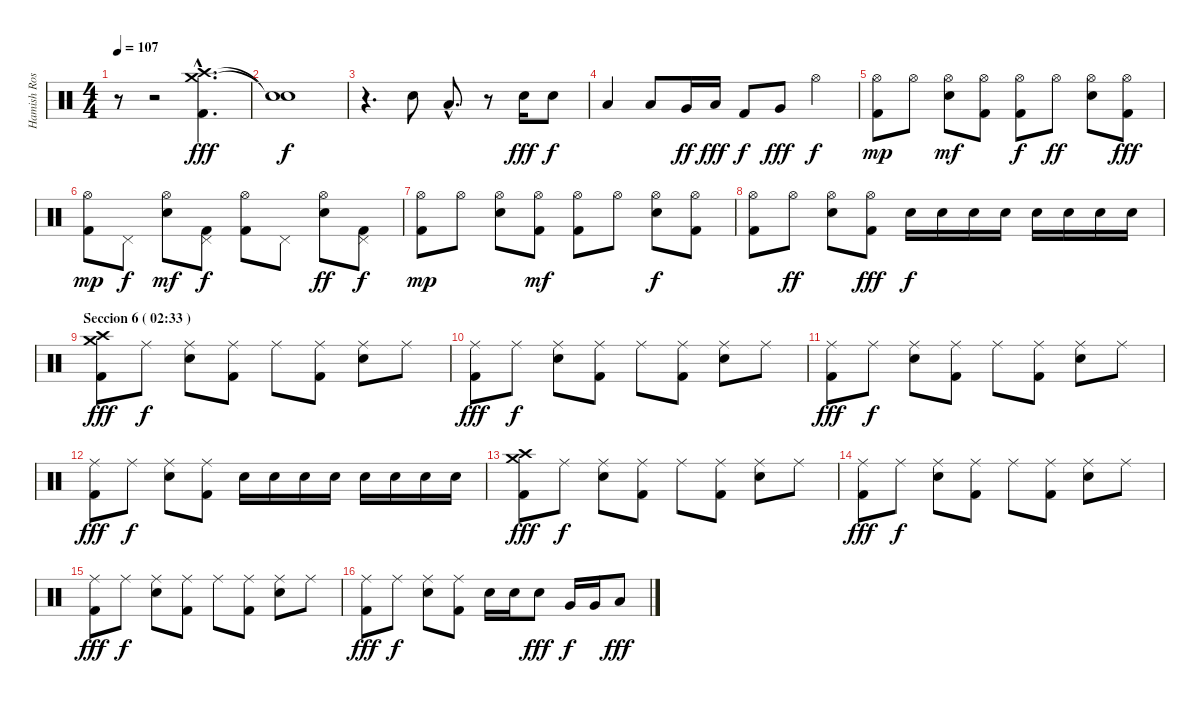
\track ("Hamish Rosser" "Hamish Ros") {instrument percussion}
\staff {score}
\articulation defaults
\ts (4 4)
\tempo 107
\clef neutral
\ks c
r.8{dy fff} r.2 ("Crash high (hit)"{hac} "Crash medium (hit)"{hac} "Kick (hit) 2"{hac}).4{d} |
("Snare (hit)"{t} "Snare (hit)"{t}).1{dy f} |
r.4{d} "Electric Snare (hit)".8 "Low Tom (hit)"{hac}.8{d} r.8 "Electric Snare (hit)".16{dy fff} "Electric Snare (hit)".8{dy f} |
"Low Tom (hit)".4 "Low Tom (hit)".8 "Very Low Tom (hit)".16{dy ff} "Low Tom (hit)".16{dy fff} "Kick (hit) 2".8{dy f} "Very Low Tom (hit)".8{dy fff} "Hi-Hat (open)".4{dy f} |
("Hi-Hat (open)" "Kick (hit) 2").8{dy mp} "Hi-Hat (open)".8 ("Hi-Hat (open)" "Electric Snare (hit)").8{dy mf} ("Hi-Hat (open)" "Kick (hit) 2").8 ("Hi-Hat (open)" "Kick (hit) 2").8{dy f} "Hi-Hat (open)".8{dy ff} ("Hi-Hat (open)" "Electric Snare (hit)").8 ("Hi-Hat (open)" "Kick (hit) 2").8{dy fff} |
("Hi-Hat (open)" "Kick (hit) 2").8{dy mp} "Pedal Hi-Hat (hit)".8{dy f} ("Hi-Hat (open)" "Electric Snare (hit)").8{dy mf} ("Pedal Hi-Hat (hit)" "Kick (hit) 2").8{dy f} ("Hi-Hat (open)" "Kick (hit) 2").8 "Pedal Hi-Hat (hit)".8 ("Hi-Hat (open)" "Electric Snare (hit)").8{dy ff} ("Pedal Hi-Hat (hit)" "Kick (hit) 2").8{dy f} |
("Hi-Hat (open)" "Kick (hit) 2").8{dy mp} "Hi-Hat (open)".8 ("Hi-Hat (open)" "Electric Snare (hit)").8 ("Hi-Hat (open)" "Kick (hit) 2").8{dy mf} ("Hi-Hat (open)" "Kick (hit) 2").8 "Hi-Hat (open)".8 ("Hi-Hat (open)" "Electric Snare (hit)").8{dy f} ("Hi-Hat (open)" "Kick (hit) 2").8 |
("Hi-Hat (open)" "Kick (hit) 2").8 "Hi-Hat (open)".8{dy ff} ("Hi-Hat (open)" "Electric Snare (hit)").8 ("Hi-Hat (open)" "Kick (hit) 2").8{dy fff} "Electric Snare (hit)".16{dy f} "Electric Snare (hit)".16 "Electric Snare (hit)".16 "Electric Snare (hit)".16 "Electric Snare (hit)".16 "Electric Snare (hit)".16 "Electric Snare (hit)".16 "Electric Snare (hit)".16 |
\section ("" "Seccion 6 ( 02:33 )")
("Crash medium (hit)" "Crash high (hit)" "Kick (hit) 2").8{dy fff} "Ride (middle)".8{dy f} ("Ride (middle)" "Electric Snare (hit)").8 ("Ride (middle)" "Kick (hit) 2").8 "Ride (middle)".8 ("Ride (middle)" "Kick (hit) 2").8 ("Ride (middle)" "Electric Snare (hit)").8 "Ride (middle)".8 |
("Ride (middle)" "Kick (hit) 2").8{dy fff} "Ride (middle)".8{dy f} ("Ride (middle)" "Electric Snare (hit)").8 ("Ride (middle)" "Kick (hit) 2").8 "Ride (middle)".8 ("Ride (middle)" "Kick (hit) 2").8 ("Ride (middle)" "Electric Snare (hit)").8 "Ride (middle)".8 |
("Ride (middle)" "Kick (hit) 2").8{dy fff} "Ride (middle)".8{dy f} ("Ride (middle)" "Electric Snare (hit)").8 ("Ride (middle)" "Kick (hit) 2").8 "Ride (middle)".8 ("Ride (middle)" "Kick (hit) 2").8 ("Ride (middle)" "Electric Snare (hit)").8 "Ride (middle)".8 |
("Ride (middle)" "Kick (hit) 2").8{dy fff} "Ride (middle)".8{dy f} ("Ride (middle)" "Electric Snare (hit)").8 ("Ride (middle)" "Kick (hit) 2").8 "Electric Snare (hit)".16 "Electric Snare (hit)".16 "Electric Snare (hit)".16 "Electric Snare (hit)".16 "Electric Snare (hit)".16 "Electric Snare (hit)".16 "Electric Snare (hit)".16 "Electric Snare (hit)".16 |
("Crash medium (hit)" "Crash high (hit)" "Kick (hit) 2").8{dy fff} "Ride (middle)".8{dy f} ("Ride (middle)" "Electric Snare (hit)").8 ("Ride (middle)" "Kick (hit) 2").8 "Ride (middle)".8 ("Ride (middle)" "Kick (hit) 2").8 ("Ride (middle)" "Electric Snare (hit)").8 "Ride (middle)".8 |
("Ride (middle)" "Kick (hit) 2").8{dy fff} "Ride (middle)".8{dy f} ("Ride (middle)" "Electric Snare (hit)").8 ("Ride (middle)" "Kick (hit) 2").8 "Ride (middle)".8 ("Ride (middle)" "Kick (hit) 2").8 ("Ride (middle)" "Electric Snare (hit)").8 "Ride (middle)".8 |
("Ride (middle)" "Kick (hit) 2").8{dy fff} "Ride (middle)".8{dy f} ("Ride (middle)" "Electric Snare (hit)").8 ("Ride (middle)" "Kick (hit) 2").8 "Ride (middle)".8 ("Ride (middle)" "Kick (hit) 2").8 ("Ride (middle)" "Electric Snare (hit)").8 "Ride (middle)".8 |
("Ride (middle)" "Kick (hit) 2").8{dy fff} "Ride (middle)".8{dy f} ("Ride (middle)" "Electric Snare (hit)").8 ("Ride (middle)" "Kick (hit) 2").8 "Electric Snare (hit)".16 "Electric Snare (hit)".16 "Electric Snare (hit)".8{dy fff} "Very Low Tom (hit)".16{dy f} "Very Low Tom (hit)".16 "Low Tom (hit)".8{dy fff}
